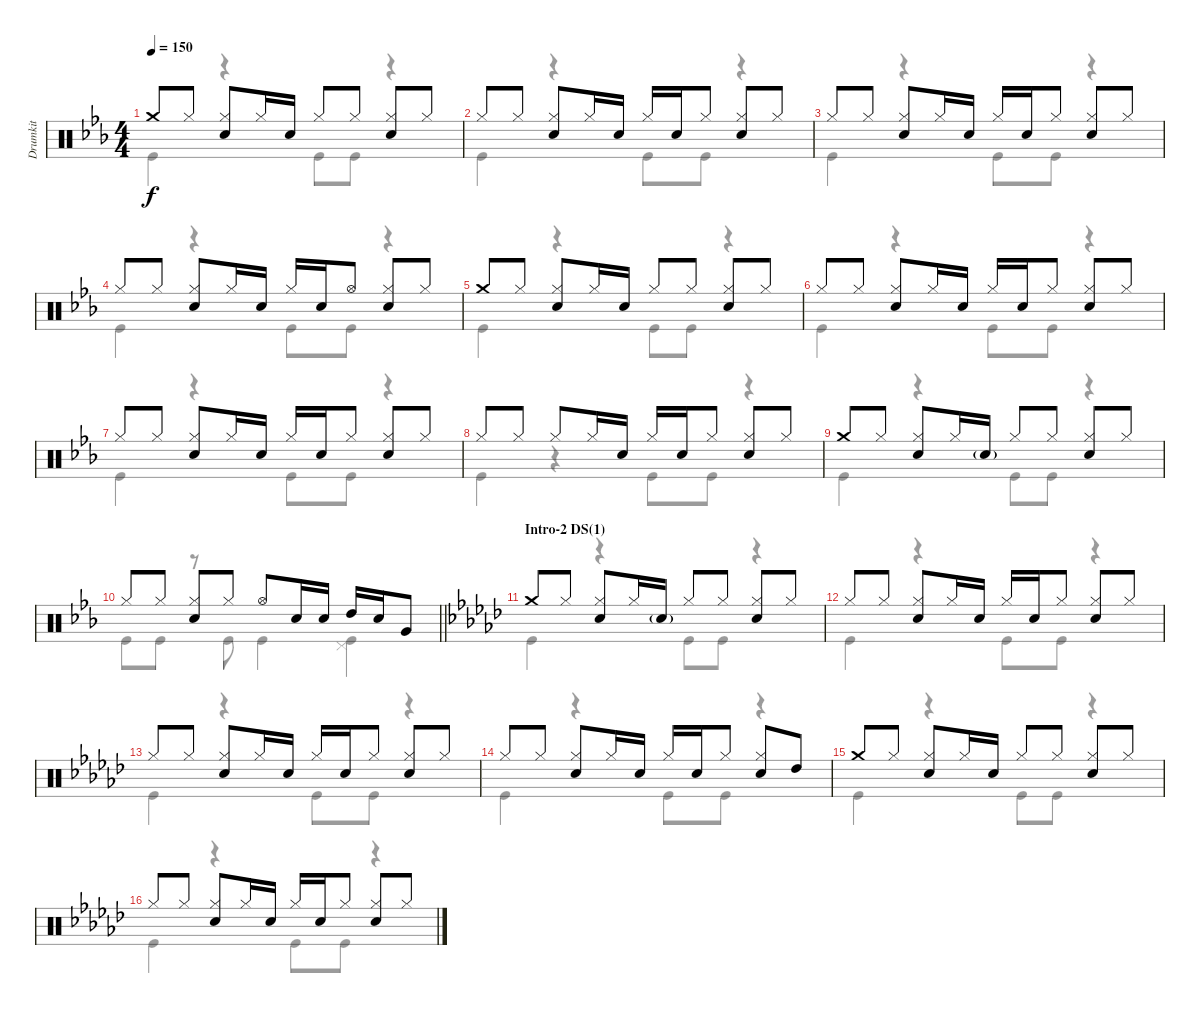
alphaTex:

\track ("Drumkit" "Drumkit") {instrument percussion}
\staff {score}
\articulation defaults
\voice
\ts (4 4)
\tempo 150
\clef neutral
\ks eb "Crash medium (hit)".8{dy f} "Hi-Hat (closed)".8
("Hi-Hat (closed)" "Snare (hit) 2").8 "Hi-Hat (closed)".16 "Snare (hit) 2".16 "Hi-Hat (closed)".8 "Hi-Hat (closed)".8 ("Hi-Hat (closed)" "Snare (hit) 2").8 "Hi-Hat (closed)".8 |
"Hi-Hat (closed)".8 "Hi-Hat (closed)".8 ("Hi-Hat (closed)" "Snare (hit) 2").8 "Hi-Hat (closed)".16 "Snare (hit) 2".16 "Hi-Hat (closed)".16 "Snare (hit) 2".16 "Hi-Hat (closed)".8 ("Hi-Hat (closed)" "Snare (hit) 2").8 "Hi-Hat (closed)".8 |
"Hi-Hat (closed)".8 "Hi-Hat (closed)".8 ("Hi-Hat (closed)" "Snare (hit) 2").8 "Hi-Hat (closed)".16 "Snare (hit) 2".16 "Hi-Hat (closed)".16 "Snare (hit) 2".16 "Hi-Hat (closed)".8 ("Hi-Hat (closed)" "Snare (hit) 2").8 "Hi-Hat (closed)".8 |
"Hi-Hat (closed)".8 "Hi-Hat (closed)".8 ("Hi-Hat (closed)" "Snare (hit) 2").8 "Hi-Hat (closed)".16 "Snare (hit) 2".16 "Hi-Hat (closed)".16 "Snare (hit) 2".16 "Hi-Hat (open)".8 ("Hi-Hat (closed)" "Snare (hit) 2").8 "Hi-Hat (closed)".8 |
"Crash medium (hit)".8 "Hi-Hat (closed)".8 ("Hi-Hat (closed)" "Snare (hit) 2").8 "Hi-Hat (closed)".16 "Snare (hit) 2".16 "Hi-Hat (closed)".8 "Hi-Hat (closed)".8 ("Hi-Hat (closed)" "Snare (hit) 2").8 "Hi-Hat (closed)".8 |
"Hi-Hat (closed)".8 "Hi-Hat (closed)".8 ("Hi-Hat (closed)" "Snare (hit) 2").8 "Hi-Hat (closed)".16 "Snare (hit) 2".16 "Hi-Hat (closed)".16 "Snare (hit) 2".16 "Hi-Hat (closed)".8 ("Hi-Hat (closed)" "Snare (hit) 2").8 "Hi-Hat (closed)".8 |
"Hi-Hat (closed)".8 "Hi-Hat (closed)".8 ("Hi-Hat (closed)" "Snare (hit) 2").8 "Hi-Hat (closed)".16 "Snare (hit) 2".16 "Hi-Hat (closed)".16 "Snare (hit) 2".16 "Hi-Hat (closed)".8 ("Hi-Hat (closed)" "Snare (hit) 2").8 "Hi-Hat (closed)".8 |
"Hi-Hat (closed)".8 "Hi-Hat (closed)".8 "Hi-Hat (closed)".8 "Hi-Hat (closed)".16 "Snare (hit) 2".16 "Hi-Hat (closed)".16 "Snare (hit) 2".16 "Hi-Hat (closed)".8 ("Hi-Hat (closed)" "Snare (hit) 2").8 "Hi-Hat (closed)".8 |
"Crash medium (hit)".8 "Hi-Hat (closed)".8 ("Hi-Hat (closed)" "Snare (hit) 2").8 "Hi-Hat (closed)".16 "Snare (hit) 2"{g}.16 "Hi-Hat (closed)".8 "Hi-Hat (closed)".8 ("Hi-Hat (closed)" "Snare (hit) 2").8 "Hi-Hat (closed)".8 |
\barLineRight lightlight "Hi-Hat (closed)".8 "Hi-Hat (closed)".8
("Hi-Hat (closed)" "Snare (hit) 2").8 "Hi-Hat (closed)".8 "Hi-Hat (open)".8 "Snare (hit) 2".16 "Snare (hit) 2".16 "High Tom (hit)".16 "Snare (hit) 2".16 "Very Low Tom (hit)".8 |
\section ("" "Intro-2 DS(1)")
\ks ebminor "Crash medium (hit)".8 "Hi-Hat (closed)".8
("Hi-Hat (closed)" "Snare (hit) 2").8 "Hi-Hat (closed)".16 "Snare (hit) 2"{g}.16 "Hi-Hat (closed)".8 "Hi-Hat (closed)".8 ("Hi-Hat (closed)" "Snare (hit) 2").8 "Hi-Hat (closed)".8 |
"Hi-Hat (closed)".8 "Hi-Hat (closed)".8 ("Hi-Hat (closed)" "Snare (hit) 2").8 "Hi-Hat (closed)".16 "Snare (hit) 2".16 "Hi-Hat (closed)".16 "Snare (hit) 2".16 "Hi-Hat (closed)".8 ("Hi-Hat (closed)" "Snare (hit) 2").8 "Hi-Hat (closed)".8 |
"Hi-Hat (closed)".8 "Hi-Hat (closed)".8 ("Hi-Hat (closed)" "Snare (hit) 2").8 "Hi-Hat (closed)".16 "Snare (hit) 2".16 "Hi-Hat (closed)".16 "Snare (hit) 2".16 "Hi-Hat (closed)".8 ("Hi-Hat (closed)" "Snare (hit) 2").8 "Hi-Hat (closed)".8 |
"Hi-Hat (closed)".8 "Hi-Hat (closed)".8 ("Hi-Hat (closed)" "Snare (hit) 2").8 "Hi-Hat (closed)".16 "Snare (hit) 2".16 "Hi-Hat (closed)".16 "Snare (hit) 2".16 "Hi-Hat (closed)".8 ("Hi-Hat (closed)" "Snare (hit) 2").8 "High Tom (hit)".8 |
"Crash medium (hit)".8 "Hi-Hat (closed)".8 ("Hi-Hat (closed)" "Snare (hit) 2").8 "Hi-Hat (closed)".16 "Snare (hit) 2".16 "Hi-Hat (closed)".8 "Hi-Hat (closed)".8 ("Hi-Hat (closed)" "Snare (hit) 2").8 "Hi-Hat (closed)".8 |
"Hi-Hat (closed)".8 "Hi-Hat (closed)".8 ("Hi-Hat (closed)" "Snare (hit) 2").8 "Hi-Hat (closed)".16 "Snare (hit) 2".16 "Hi-Hat (closed)".16 "Snare (hit) 2".16 "Hi-Hat (closed)".8 ("Hi-Hat (closed)" "Snare (hit) 2").8 "Hi-Hat (closed)".8
\voice
\clef neutral
\ottava regular
\simile none
\ks eb "Kick (hit)".4{dy f}
r.4 "Kick (hit)".8 "Kick (hit)".8 r.4 |
"Kick (hit)".4 r.4 "Kick (hit)".8 "Kick (hit)".8 r.4 |
"Kick (hit)".4 r.4 "Kick (hit)".8 "Kick (hit)".8 r.4 |
"Kick (hit)".4 r.4 "Kick (hit)".8 "Kick (hit)".8 r.4 |
"Kick (hit)".4 r.4 "Kick (hit)".8 "Kick (hit)".8 r.4 |
"Kick (hit)".4 r.4 "Kick (hit)".8 "Kick (hit)".8 r.4 |
"Kick (hit)".4 r.4 "Kick (hit)".8 "Kick (hit)".8 r.4 |
"Kick (hit)".4 r.4 "Kick (hit)".8 "Kick (hit)".8 r.4 |
"Kick (hit)".4 r.4 "Kick (hit)".8 "Kick (hit)".8 r.4 |
\barLineRight lightlight "Kick (hit)".8 "Kick (hit)".8
r.8 "Kick (hit)".8 "Kick (hit)".4 ("Kick (hit)" "Pedal Hi-Hat (hit)").4 |
\ks ebminor "Kick (hit)".4
r.4 "Kick (hit)".8 "Kick (hit)".8 r.4 |
"Kick (hit)".4 r.4 "Kick (hit)".8 "Kick (hit)".8 r.4 |
"Kick (hit)".4 r.4 "Kick (hit)".8 "Kick (hit)".8 r.4 |
"Kick (hit)".4 r.4 "Kick (hit)".8 "Kick (hit)".8 r.4 |
"Kick (hit)".4 r.4 "Kick (hit)".8 "Kick (hit)".8 r.4 |
"Kick (hit)".4 r.4 "Kick (hit)".8 "Kick (hit)".8 r.4
